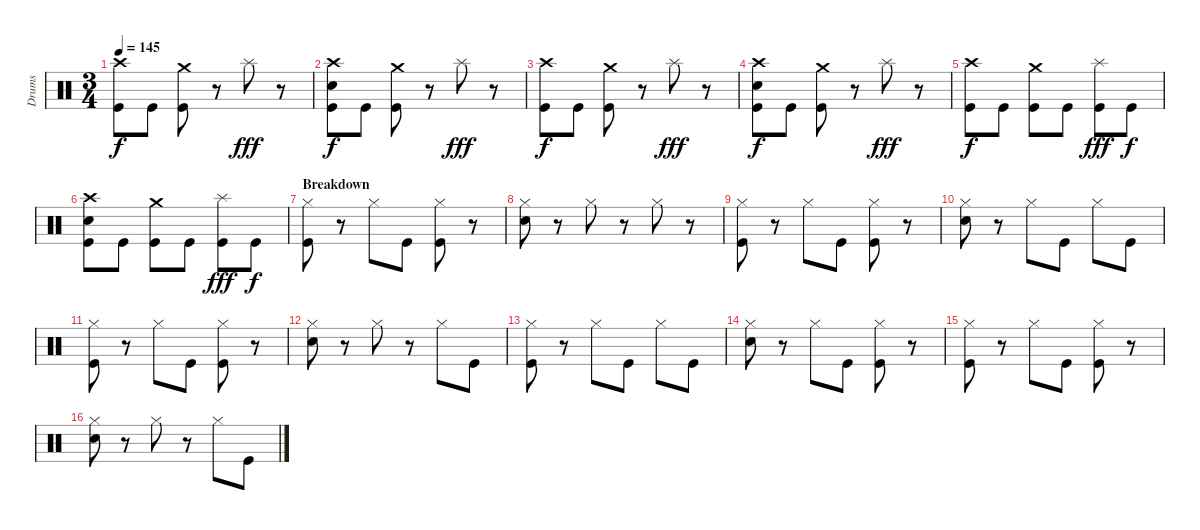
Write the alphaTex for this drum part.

\track ("Drums" "Drums") {instrument percussion}
\staff {score}
\articulation defaults
\ts (3 4)
\tempo 145
\clef neutral
\ks c
("Crash high (hit)" "Kick (hit)").8{dy f} "Kick (hit)".8 ("Crash medium (hit)" "Kick (hit)").8 r.8 "Splash (hit)".8{dy fff} r.8 |
("Crash high (hit)" "Electric Snare (hit)" "Kick (hit)").8{dy f} "Kick (hit)".8 ("Crash medium (hit)" "Kick (hit)").8 r.8 "Splash (hit)".8{dy fff} r.8 |
("Crash high (hit)" "Kick (hit)").8{dy f} "Kick (hit)".8 ("Crash medium (hit)" "Kick (hit)").8 r.8 "Splash (hit)".8{dy fff} r.8 |
("Crash high (hit)" "Electric Snare (hit)" "Kick (hit)").8{dy f} "Kick (hit)".8 ("Crash medium (hit)" "Kick (hit)").8 r.8 "Splash (hit)".8{dy fff} r.8 |
("Crash high (hit)" "Kick (hit)").8{dy f} "Kick (hit)".8 ("Crash medium (hit)" "Kick (hit)").8 "Kick (hit)".8 ("Splash (hit)" "Kick (hit)").8{dy fff} "Kick (hit)".8{dy f} |
("Crash high (hit)" "Electric Snare (hit)" "Kick (hit)").8 "Kick (hit)".8 ("Crash medium (hit)" "Kick (hit)").8 "Kick (hit)".8 ("Splash (hit)" "Kick (hit)").8{dy fff} "Kick (hit)".8{dy f} |
\section ("" "Breakdown")
("Hi-Hat (closed)" "Kick (hit)").8 r.8 "Hi-Hat (closed)".8 "Kick (hit)".8 ("Hi-Hat (closed)" "Kick (hit)").8 r.8 |
("Hi-Hat (closed)" "Electric Snare (hit)").8 r.8 "Hi-Hat (closed)".8 r.8 "Hi-Hat (closed)".8 r.8 |
("Hi-Hat (closed)" "Kick (hit)").8 r.8 "Hi-Hat (closed)".8 "Kick (hit)".8 ("Hi-Hat (closed)" "Kick (hit)").8 r.8 |
("Hi-Hat (closed)" "Electric Snare (hit)").8 r.8 "Hi-Hat (closed)".8 "Kick (hit)".8 "Hi-Hat (closed)".8 "Kick (hit)".8 |
("Hi-Hat (closed)" "Kick (hit)").8 r.8 "Hi-Hat (closed)".8 "Kick (hit)".8 ("Hi-Hat (closed)" "Kick (hit)").8 r.8 |
("Hi-Hat (closed)" "Electric Snare (hit)").8 r.8 "Hi-Hat (closed)".8 r.8 "Hi-Hat (closed)".8 "Kick (hit)".8 |
("Hi-Hat (closed)" "Kick (hit)").8 r.8 "Hi-Hat (closed)".8 "Kick (hit)".8 "Hi-Hat (closed)".8 "Kick (hit)".8 |
("Hi-Hat (closed)" "Electric Snare (hit)").8 r.8 "Hi-Hat (closed)".8 "Kick (hit)".8 ("Hi-Hat (closed)" "Kick (hit)").8 r.8 |
("Hi-Hat (closed)" "Kick (hit)").8 r.8 "Hi-Hat (closed)".8 "Kick (hit)".8 ("Hi-Hat (closed)" "Kick (hit)").8 r.8 |
("Hi-Hat (closed)" "Electric Snare (hit)").8 r.8 "Hi-Hat (closed)".8 r.8 "Hi-Hat (closed)".8 "Kick (hit)".8
